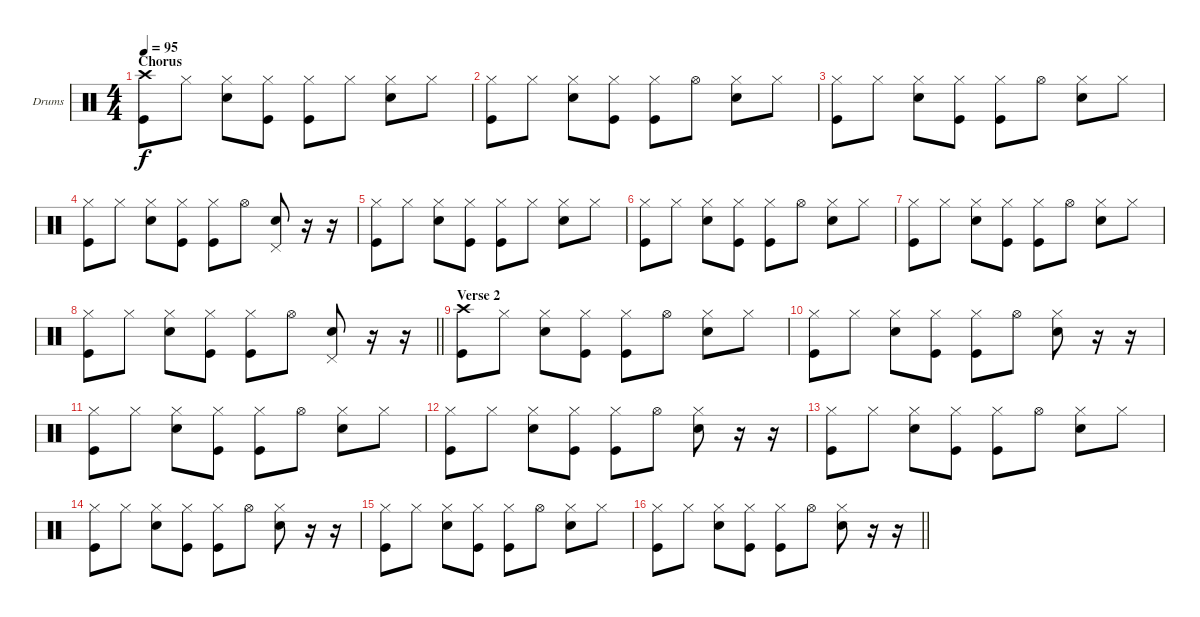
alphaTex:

\bracketExtendMode groupsimilarinstruments
\firstSystemTrackNameOrientation horizontal
\otherSystemsTrackNameOrientation horizontal
\track ("Drumkit" "Drums") {instrument percussion}
\staff {score}
\articulation defaults
\ts (4 4)
\section ("" "Chorus")
\tempo 95
\clef neutral
\ks c
("Crash high (hit)" "Kick (hit)").8{dy f} "Hi-Hat (closed)".8 ("Hi-Hat (closed)" "Snare (hit) 2").8 ("Hi-Hat (closed)" "Kick (hit)").8 ("Hi-Hat (closed)" "Kick (hit)").8 "Hi-Hat (closed)".8 ("Hi-Hat (closed)" "Snare (hit) 2").8 "Hi-Hat (closed)".8 |
("Hi-Hat (closed)" "Kick (hit)").8 "Hi-Hat (closed)".8 ("Hi-Hat (closed)" "Snare (hit) 2").8 ("Hi-Hat (closed)" "Kick (hit)").8 ("Hi-Hat (closed)" "Kick (hit)").8 "Hi-Hat (open)".8 ("Hi-Hat (closed)" "Snare (hit) 2").8 "Hi-Hat (closed)".8 |
("Hi-Hat (closed)" "Kick (hit)").8 "Hi-Hat (closed)".8 ("Hi-Hat (closed)" "Snare (hit) 2").8 ("Hi-Hat (closed)" "Kick (hit)").8 ("Hi-Hat (closed)" "Kick (hit)").8 "Hi-Hat (open)".8 ("Hi-Hat (closed)" "Snare (hit) 2").8 "Hi-Hat (closed)".8 |
("Hi-Hat (closed)" "Kick (hit)").8 "Hi-Hat (closed)".8 ("Hi-Hat (closed)" "Snare (hit) 2").8 ("Hi-Hat (closed)" "Kick (hit)").8 ("Hi-Hat (closed)" "Kick (hit)").8 "Hi-Hat (open)".8 ("Pedal Hi-Hat (hit)" "Snare (hit) 2").8 r.16 r.16 |
("Hi-Hat (closed)" "Kick (hit)").8 "Hi-Hat (closed)".8 ("Hi-Hat (closed)" "Snare (hit) 2").8 ("Hi-Hat (closed)" "Kick (hit)").8 ("Hi-Hat (closed)" "Kick (hit)").8 "Hi-Hat (closed)".8 ("Hi-Hat (closed)" "Snare (hit) 2").8 "Hi-Hat (closed)".8 |
("Hi-Hat (closed)" "Kick (hit)").8 "Hi-Hat (closed)".8 ("Hi-Hat (closed)" "Snare (hit) 2").8 ("Hi-Hat (closed)" "Kick (hit)").8 ("Hi-Hat (closed)" "Kick (hit)").8 "Hi-Hat (open)".8 ("Hi-Hat (closed)" "Snare (hit) 2").8 "Hi-Hat (closed)".8 |
("Hi-Hat (closed)" "Kick (hit)").8 "Hi-Hat (closed)".8 ("Hi-Hat (closed)" "Snare (hit) 2").8 ("Hi-Hat (closed)" "Kick (hit)").8 ("Hi-Hat (closed)" "Kick (hit)").8 "Hi-Hat (open)".8 ("Hi-Hat (closed)" "Snare (hit) 2").8 "Hi-Hat (closed)".8 |
\barLineRight lightlight
("Hi-Hat (closed)" "Kick (hit)").8 "Hi-Hat (closed)".8 ("Hi-Hat (closed)" "Snare (hit) 2").8 ("Hi-Hat (closed)" "Kick (hit)").8 ("Hi-Hat (closed)" "Kick (hit)").8 "Hi-Hat (open)".8 ("Pedal Hi-Hat (hit)" "Snare (hit) 2").8 r.16 r.16 |
\section ("" "Verse 2")
("Crash high (hit)" "Kick (hit)").8 "Hi-Hat (closed)".8 ("Hi-Hat (closed)" "Snare (hit) 2").8 ("Hi-Hat (closed)" "Kick (hit)").8 ("Hi-Hat (closed)" "Kick (hit)").8 "Hi-Hat (open)".8 ("Hi-Hat (closed)" "Snare (hit) 2").8 "Hi-Hat (closed)".8 |
("Hi-Hat (closed)" "Kick (hit)").8 "Hi-Hat (closed)".8 ("Hi-Hat (closed)" "Snare (hit) 2").8 ("Hi-Hat (closed)" "Kick (hit)").8 ("Hi-Hat (closed)" "Kick (hit)").8 "Hi-Hat (open)".8 ("Hi-Hat (closed)" "Snare (hit) 2").8 r.16 r.16 |
("Hi-Hat (closed)" "Kick (hit)").8 "Hi-Hat (closed)".8 ("Hi-Hat (closed)" "Snare (hit) 2").8 ("Hi-Hat (closed)" "Kick (hit)").8 ("Hi-Hat (closed)" "Kick (hit)").8 "Hi-Hat (open)".8 ("Hi-Hat (closed)" "Snare (hit) 2").8 "Hi-Hat (closed)".8 |
("Hi-Hat (closed)" "Kick (hit)").8 "Hi-Hat (closed)".8 ("Hi-Hat (closed)" "Snare (hit) 2").8 ("Hi-Hat (closed)" "Kick (hit)").8 ("Hi-Hat (closed)" "Kick (hit)").8 "Hi-Hat (open)".8 ("Hi-Hat (closed)" "Snare (hit) 2").8 r.16 r.16 |
("Hi-Hat (closed)" "Kick (hit)").8 "Hi-Hat (closed)".8 ("Hi-Hat (closed)" "Snare (hit) 2").8 ("Hi-Hat (closed)" "Kick (hit)").8 ("Hi-Hat (closed)" "Kick (hit)").8 "Hi-Hat (open)".8 ("Hi-Hat (closed)" "Snare (hit) 2").8 "Hi-Hat (closed)".8 |
("Hi-Hat (closed)" "Kick (hit)").8 "Hi-Hat (closed)".8 ("Hi-Hat (closed)" "Snare (hit) 2").8 ("Hi-Hat (closed)" "Kick (hit)").8 ("Hi-Hat (closed)" "Kick (hit)").8 "Hi-Hat (open)".8 ("Hi-Hat (closed)" "Snare (hit) 2").8 r.16 r.16 |
("Hi-Hat (closed)" "Kick (hit)").8 "Hi-Hat (closed)".8 ("Hi-Hat (closed)" "Snare (hit) 2").8 ("Hi-Hat (closed)" "Kick (hit)").8 ("Hi-Hat (closed)" "Kick (hit)").8 "Hi-Hat (open)".8 ("Hi-Hat (closed)" "Snare (hit) 2").8 "Hi-Hat (closed)".8 |
\barLineRight lightlight
("Hi-Hat (closed)" "Kick (hit)").8 "Hi-Hat (closed)".8 ("Hi-Hat (closed)" "Snare (hit) 2").8 ("Hi-Hat (closed)" "Kick (hit)").8 ("Hi-Hat (closed)" "Kick (hit)").8 "Hi-Hat (open)".8 ("Hi-Hat (closed)" "Snare (hit) 2").8 r.16 r.16
